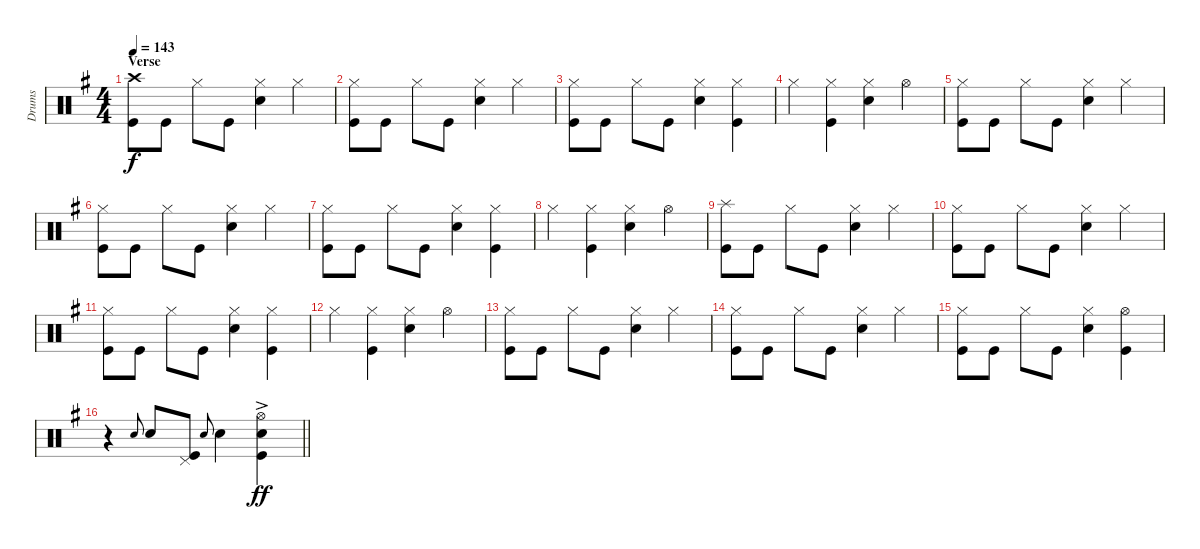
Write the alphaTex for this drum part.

\track ("Drums" "Drums") {instrument percussion}
\staff {score}
\articulation defaults
\ts (4 4)
\section ("" "Verse")
\tempo 143
\clef neutral
\ks eminor
("Crash high (hit)" "Kick (hit)").8{dy f} "Kick (hit)".8 "Hi-Hat (closed)".8 "Kick (hit)".8 ("Hi-Hat (closed)" "Snare (hit) 2").4 "Hi-Hat (closed)".4 |
("Hi-Hat (closed)" "Kick (hit)").8 "Kick (hit)".8 "Hi-Hat (closed)".8 "Kick (hit)".8 ("Hi-Hat (closed)" "Snare (hit) 2").4 "Hi-Hat (closed)".4 |
("Hi-Hat (closed)" "Kick (hit)").8 "Kick (hit)".8 "Hi-Hat (closed)".8 "Kick (hit)".8 ("Hi-Hat (closed)" "Snare (hit) 2").4 ("Hi-Hat (closed)" "Kick (hit)").4 |
"Hi-Hat (closed)".4 ("Hi-Hat (closed)" "Kick (hit)").4 ("Hi-Hat (closed)" "Snare (hit) 2").4 "Hi-Hat (open)".4 |
("Hi-Hat (closed)" "Kick (hit)").8 "Kick (hit)".8 "Hi-Hat (closed)".8 "Kick (hit)".8 ("Hi-Hat (closed)" "Snare (hit) 2").4 "Hi-Hat (closed)".4 |
("Hi-Hat (closed)" "Kick (hit)").8 "Kick (hit)".8 "Hi-Hat (closed)".8 "Kick (hit)".8 ("Hi-Hat (closed)" "Snare (hit) 2").4 "Hi-Hat (closed)".4 |
("Hi-Hat (closed)" "Kick (hit)").8 "Kick (hit)".8 "Hi-Hat (closed)".8 "Kick (hit)".8 ("Hi-Hat (closed)" "Snare (hit) 2").4 ("Hi-Hat (closed)" "Kick (hit)").4 |
"Hi-Hat (closed)".4 ("Hi-Hat (closed)" "Kick (hit)").4 ("Hi-Hat (closed)" "Snare (hit) 2").4 "Hi-Hat (open)".4 |
("Splash (hit)" "Kick (hit)").8 "Kick (hit)".8 "Hi-Hat (closed)".8 "Kick (hit)".8 ("Hi-Hat (closed)" "Snare (hit) 2").4 "Hi-Hat (closed)".4 |
("Hi-Hat (closed)" "Kick (hit)").8 "Kick (hit)".8 "Hi-Hat (closed)".8 "Kick (hit)".8 ("Hi-Hat (closed)" "Snare (hit) 2").4 "Hi-Hat (closed)".4 |
("Hi-Hat (closed)" "Kick (hit)").8 "Kick (hit)".8 "Hi-Hat (closed)".8 "Kick (hit)".8 ("Hi-Hat (closed)" "Snare (hit) 2").4 ("Hi-Hat (closed)" "Kick (hit)").4 |
"Hi-Hat (closed)".4 ("Hi-Hat (closed)" "Kick (hit)").4 ("Hi-Hat (closed)" "Snare (hit) 2").4 "Hi-Hat (open)".4 |
("Hi-Hat (closed)" "Kick (hit)").8 "Kick (hit)".8 "Hi-Hat (closed)".8 "Kick (hit)".8 ("Hi-Hat (closed)" "Snare (hit) 2").4 "Hi-Hat (closed)".4 |
("Hi-Hat (closed)" "Kick (hit)").8 "Kick (hit)".8 "Hi-Hat (closed)".8 "Kick (hit)".8 ("Hi-Hat (closed)" "Snare (hit) 2").4 "Hi-Hat (closed)".4 |
("Hi-Hat (closed)" "Kick (hit)").8 "Kick (hit)".8 "Hi-Hat (closed)".8 "Kick (hit)".8 ("Hi-Hat (closed)" "Snare (hit) 2").4 ("Hi-Hat (open)" "Kick (hit)").4 |
\barLineRight lightlight
r.4 "Snare (hit) 2".8{gr onbeat} "Snare (hit) 2".8 ("Kick (hit)" "Pedal Hi-Hat (hit)").8 "Snare (hit) 2".8{gr onbeat} "Snare (hit) 2".4 ("Kick (hit)" "Snare (hit) 2"{ac} "Hi-Hat (open)"{ac}).4{dy ff}
